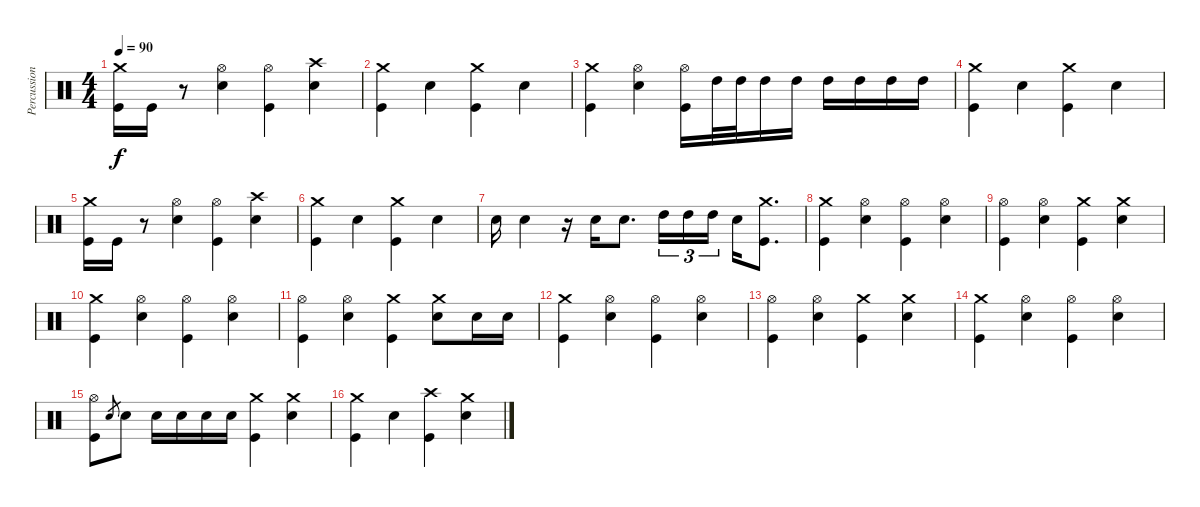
\track ("Percussion" "Percussion") {instrument percussion}
\staff {score}
\articulation defaults
\ts (4 4)
\tempo 90
\clef neutral
\ks c
("Crash medium (hit)" "Kick (hit)").16{dy f} "Kick (hit)".16 r.8 ("Hi-Hat (open)" "Snare (hit) 2").4 ("Hi-Hat (open)" "Kick (hit)").4 ("Crash high (hit)" "Snare (hit) 2").4 |
("Crash medium (hit)" "Kick (hit)").4 "Snare (hit) 2".4 ("Crash medium (hit)" "Kick (hit)").4 "Snare (hit) 2".4 |
("Crash medium (hit)" "Kick (hit)").4 ("Hi-Hat (open)" "Snare (hit) 2").4 ("Hi-Hat (open)" "Kick (hit)").16 "High Tom (hit)".32 "High Tom (hit)".32 "High Tom (hit)".16 "High Tom (hit)".16 "High Tom (hit)".16 "High Tom (hit)".16 "High Tom (hit)".16 "High Tom (hit)".16 |
("Crash medium (hit)" "Kick (hit)").4 "Snare (hit) 2".4 ("Crash medium (hit)" "Kick (hit)").4 "Snare (hit) 2".4 |
("Crash medium (hit)" "Kick (hit)").16 "Kick (hit)".16 r.8 ("Hi-Hat (open)" "Snare (hit) 2").4 ("Hi-Hat (open)" "Kick (hit)").4 ("Crash high (hit)" "Snare (hit) 2").4 |
("Crash medium (hit)" "Kick (hit)").4 "Snare (hit) 2".4 ("Crash medium (hit)" "Kick (hit)").4 "Snare (hit) 2".4 |
"Snare (hit) 2".16 "Snare (hit) 2".4 r.16 "Snare (hit) 2".16 "Snare (hit) 2".8{d} "High Tom (hit)".16{tu (3 2)} "High Tom (hit)".16{tu (3 2)} "High Tom (hit)".16{tu (3 2)} "Snare (hit) 2".16 ("Crash medium (hit)" "Kick (hit)").8{d} |
("Crash medium (hit)" "Kick (hit)").4 ("Hi-Hat (open)" "Snare (hit) 2").4 ("Hi-Hat (open)" "Kick (hit)").4 ("Hi-Hat (open)" "Snare (hit) 2").4 |
("Hi-Hat (open)" "Kick (hit)").4 ("Hi-Hat (open)" "Snare (hit) 2").4 ("Crash medium (hit)" "Kick (hit)").4 ("Crash medium (hit)" "Snare (hit) 2").4 |
("Crash medium (hit)" "Kick (hit)").4 ("Hi-Hat (open)" "Snare (hit) 2").4 ("Hi-Hat (open)" "Kick (hit)").4 ("Hi-Hat (open)" "Snare (hit) 2").4 |
("Hi-Hat (open)" "Kick (hit)").4 ("Hi-Hat (open)" "Snare (hit) 2").4 ("Crash medium (hit)" "Kick (hit)").4 ("Crash medium (hit)" "Snare (hit) 2").8 "Snare (hit) 2".16 "Snare (hit) 2".16 |
("Crash medium (hit)" "Kick (hit)").4 ("Hi-Hat (open)" "Snare (hit) 2").4 ("Hi-Hat (open)" "Kick (hit)").4 ("Hi-Hat (open)" "Snare (hit) 2").4 |
("Hi-Hat (open)" "Kick (hit)").4 ("Hi-Hat (open)" "Snare (hit) 2").4 ("Crash medium (hit)" "Kick (hit)").4 ("Crash medium (hit)" "Snare (hit) 2").4 |
("Crash medium (hit)" "Kick (hit)").4 ("Hi-Hat (open)" "Snare (hit) 2").4 ("Hi-Hat (open)" "Kick (hit)").4 ("Hi-Hat (open)" "Snare (hit) 2").4 |
("Hi-Hat (open)" "Kick (hit)").8 "Snare (hit) 2".8{gr} "Snare (hit) 2".8 "Snare (hit) 2".16 "Snare (hit) 2".16 "Snare (hit) 2".16 "Snare (hit) 2".16 ("Crash medium (hit)" "Kick (hit)").4 ("Crash medium (hit)" "Snare (hit) 2").4 |
("Crash medium (hit)" "Kick (hit)").4 "Snare (hit) 2".4 ("Crash high (hit)" "Kick (hit)").4 ("Crash medium (hit)" "Snare (hit) 2").4
